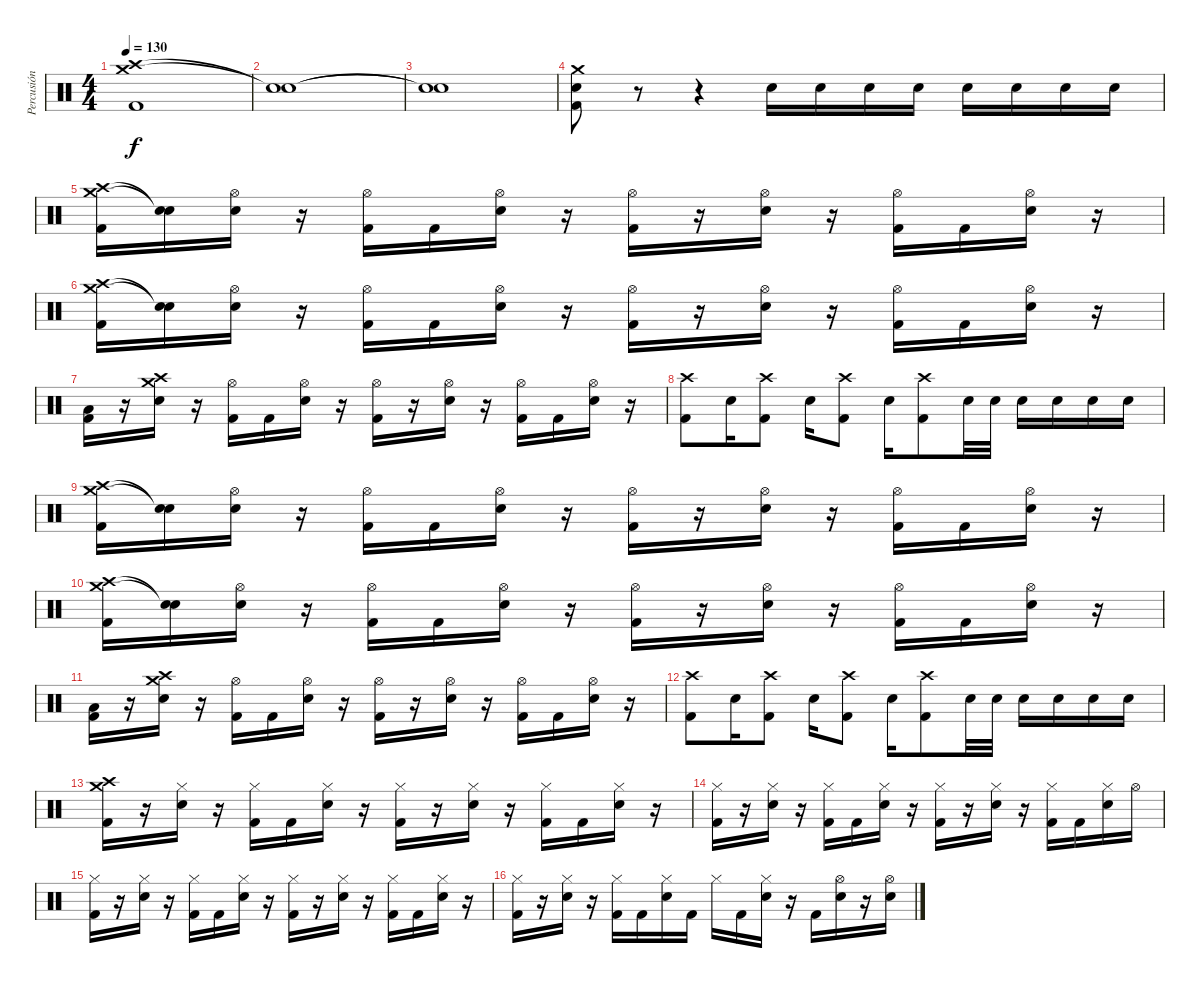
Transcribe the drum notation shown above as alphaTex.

\track ("Percusión" "Percusión") {instrument percussion}
\staff {score}
\articulation defaults
\ts (4 4)
\tempo 130
\clef neutral
\ks c
("Crash high (hit)" "Crash medium (hit)" "Kick (hit) 2").1{dy f} |
("Snare (hit)"{t} "Snare (hit)"{t}).1 |
("Snare (hit)"{t} "Snare (hit)"{t}).1 |
("Crash medium (hit)" "Electric Snare (hit)" "Kick (hit) 2").8 r.8 r.4 "Electric Snare (hit)".16 "Electric Snare (hit)".16 "Electric Snare (hit)".16 "Electric Snare (hit)".16 "Electric Snare (hit)".16 "Electric Snare (hit)".16 "Electric Snare (hit)".16 "Electric Snare (hit)".16 |
("Crash high (hit)" "Crash medium (hit)" "Kick (hit) 2").16 ("Snare (hit)"{t} "Snare (hit)"{t}).16 ("Hi-Hat (open)" "Electric Snare (hit)").16 r.16 ("Hi-Hat (open)" "Kick (hit) 2").16 "Kick (hit) 2".16 ("Hi-Hat (open)" "Electric Snare (hit)").16 r.16 ("Hi-Hat (open)" "Kick (hit) 2").16 r.16 ("Hi-Hat (open)" "Electric Snare (hit)").16 r.16 ("Hi-Hat (open)" "Kick (hit) 2").16 "Kick (hit) 2".16 ("Hi-Hat (open)" "Electric Snare (hit)").16 r.16 |
("Crash high (hit)" "Crash medium (hit)" "Kick (hit) 2").16 ("Snare (hit)"{t} "Snare (hit)"{t}).16 ("Hi-Hat (open)" "Electric Snare (hit)").16 r.16 ("Hi-Hat (open)" "Kick (hit) 2").16 "Kick (hit) 2".16 ("Hi-Hat (open)" "Electric Snare (hit)").16 r.16 ("Hi-Hat (open)" "Kick (hit) 2").16 r.16 ("Hi-Hat (open)" "Electric Snare (hit)").16 r.16 ("Hi-Hat (open)" "Kick (hit) 2").16 "Kick (hit) 2".16 ("Hi-Hat (open)" "Electric Snare (hit)").16 r.16 |
("Low Tom (hit)" "Kick (hit) 2").16 r.16 ("Crash medium (hit)" "Crash high (hit)" "Electric Snare (hit)").16 r.16 ("Hi-Hat (open)" "Kick (hit) 2").16 "Kick (hit) 2".16 ("Hi-Hat (open)" "Electric Snare (hit)").16 r.16 ("Hi-Hat (open)" "Kick (hit) 2").16 r.16 ("Hi-Hat (open)" "Electric Snare (hit)").16 r.16 ("Hi-Hat (open)" "Kick (hit) 2").16 "Kick (hit) 2".16 ("Hi-Hat (open)" "Electric Snare (hit)").16 r.16 |
("Crash high (hit)" "Kick (hit) 2").8 "Electric Snare (hit)".16 ("Crash high (hit)" "Kick (hit) 2").8 "Electric Snare (hit)".16 ("Crash high (hit)" "Kick (hit) 2").8 "Electric Snare (hit)".16 ("Crash high (hit)" "Kick (hit) 2").8 "Electric Snare (hit)".32 "Electric Snare (hit)".32 "Electric Snare (hit)".16 "Electric Snare (hit)".16 "Electric Snare (hit)".16 "Electric Snare (hit)".16 |
("Crash high (hit)" "Crash medium (hit)" "Kick (hit) 2").16 ("Snare (hit)"{t} "Snare (hit)"{t}).16 ("Hi-Hat (open)" "Electric Snare (hit)").16 r.16 ("Hi-Hat (open)" "Kick (hit) 2").16 "Kick (hit) 2".16 ("Hi-Hat (open)" "Electric Snare (hit)").16 r.16 ("Hi-Hat (open)" "Kick (hit) 2").16 r.16 ("Hi-Hat (open)" "Electric Snare (hit)").16 r.16 ("Hi-Hat (open)" "Kick (hit) 2").16 "Kick (hit) 2".16 ("Hi-Hat (open)" "Electric Snare (hit)").16 r.16 |
("Crash high (hit)" "Crash medium (hit)" "Kick (hit) 2").16 ("Snare (hit)"{t} "Snare (hit)"{t}).16 ("Hi-Hat (open)" "Electric Snare (hit)").16 r.16 ("Hi-Hat (open)" "Kick (hit) 2").16 "Kick (hit) 2".16 ("Hi-Hat (open)" "Electric Snare (hit)").16 r.16 ("Hi-Hat (open)" "Kick (hit) 2").16 r.16 ("Hi-Hat (open)" "Electric Snare (hit)").16 r.16 ("Hi-Hat (open)" "Kick (hit) 2").16 "Kick (hit) 2".16 ("Hi-Hat (open)" "Electric Snare (hit)").16 r.16 |
("Low Tom (hit)" "Kick (hit) 2").16 r.16 ("Crash medium (hit)" "Crash high (hit)" "Electric Snare (hit)").16 r.16 ("Hi-Hat (open)" "Kick (hit) 2").16 "Kick (hit) 2".16 ("Hi-Hat (open)" "Electric Snare (hit)").16 r.16 ("Hi-Hat (open)" "Kick (hit) 2").16 r.16 ("Hi-Hat (open)" "Electric Snare (hit)").16 r.16 ("Hi-Hat (open)" "Kick (hit) 2").16 "Kick (hit) 2".16 ("Hi-Hat (open)" "Electric Snare (hit)").16 r.16 |
("Crash high (hit)" "Kick (hit) 2").8 "Electric Snare (hit)".16 ("Crash high (hit)" "Kick (hit) 2").8 "Electric Snare (hit)".16 ("Crash high (hit)" "Kick (hit) 2").8 "Electric Snare (hit)".16 ("Crash high (hit)" "Kick (hit) 2").8 "Electric Snare (hit)".32 "Electric Snare (hit)".32 "Electric Snare (hit)".16 "Electric Snare (hit)".16 "Electric Snare (hit)".16 "Electric Snare (hit)".16 |
("Crash high (hit)" "Crash medium (hit)" "Kick (hit) 2").16 r.16 ("Hi-Hat (closed)" "Electric Snare (hit)").16 r.16 ("Hi-Hat (closed)" "Kick (hit) 2").16 "Kick (hit) 2".16 ("Hi-Hat (closed)" "Electric Snare (hit)").16 r.16 ("Hi-Hat (closed)" "Kick (hit) 2").16 r.16 ("Hi-Hat (closed)" "Electric Snare (hit)").16 r.16 ("Hi-Hat (closed)" "Kick (hit) 2").16 "Kick (hit) 2".16 ("Hi-Hat (closed)" "Electric Snare (hit)").16 r.16 |
("Hi-Hat (closed)" "Kick (hit) 2").16 r.16 ("Hi-Hat (closed)" "Electric Snare (hit)").16 r.16 ("Hi-Hat (closed)" "Kick (hit) 2").16 "Kick (hit) 2".16 ("Hi-Hat (closed)" "Electric Snare (hit)").16 r.16 ("Hi-Hat (closed)" "Kick (hit) 2").16 r.16 ("Hi-Hat (closed)" "Electric Snare (hit)").16 r.16 ("Hi-Hat (closed)" "Kick (hit) 2").16 "Kick (hit) 2".16 ("Hi-Hat (closed)" "Electric Snare (hit)").16 "Hi-Hat (open)".16 |
("Hi-Hat (closed)" "Kick (hit) 2").16 r.16 ("Hi-Hat (closed)" "Electric Snare (hit)").16 r.16 ("Hi-Hat (closed)" "Kick (hit) 2").16 "Kick (hit) 2".16 ("Hi-Hat (closed)" "Electric Snare (hit)").16 r.16 ("Hi-Hat (closed)" "Kick (hit) 2").16 r.16 ("Hi-Hat (closed)" "Electric Snare (hit)").16 r.16 ("Hi-Hat (closed)" "Kick (hit) 2").16 "Kick (hit) 2".16 ("Hi-Hat (closed)" "Electric Snare (hit)").16 r.16 |
("Hi-Hat (closed)" "Kick (hit) 2").16 r.16 ("Hi-Hat (closed)" "Electric Snare (hit)").16 r.16 ("Hi-Hat (closed)" "Kick (hit) 2").16 "Kick (hit) 2".16 ("Hi-Hat (closed)" "Electric Snare (hit)").16 "Kick (hit) 2".16 "Hi-Hat (closed)".16 "Kick (hit) 2".16 ("Hi-Hat (closed)" "Electric Snare (hit)").16 r.16 "Kick (hit) 2".16 ("Hi-Hat (open)" "Electric Snare (hit)").16 r.16 ("Hi-Hat (open)" "Electric Snare (hit)").16
